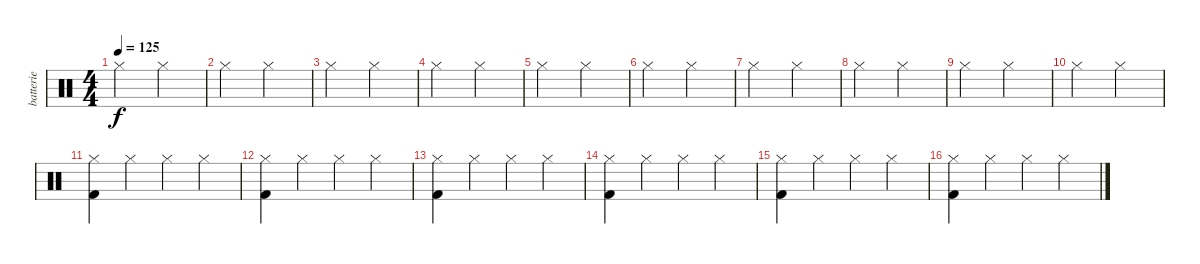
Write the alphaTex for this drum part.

\track ("batterie" "batterie") {instrument percussion}
\staff {score}
\articulation defaults
\ts (4 4)
\tempo 125
\clef neutral
\ks c "Hi-Hat (closed)".2{dy f} "Hi-Hat (closed)".2
|
"Hi-Hat (closed)".2 "Hi-Hat (closed)".2 |
"Hi-Hat (closed)".2 "Hi-Hat (closed)".2 |
"Hi-Hat (closed)".2 "Hi-Hat (closed)".2 |
"Hi-Hat (closed)".2 "Hi-Hat (closed)".2 |
"Hi-Hat (closed)".2 "Hi-Hat (closed)".2 |
"Hi-Hat (closed)".2 "Hi-Hat (closed)".2 |
"Hi-Hat (closed)".2 "Hi-Hat (closed)".2 |
"Hi-Hat (closed)".2 "Hi-Hat (closed)".2 |
"Hi-Hat (closed)".2 "Hi-Hat (closed)".2 |
("Kick (hit) 2" "Hi-Hat (closed)").4 "Hi-Hat (closed)".4 "Hi-Hat (closed)".4 "Hi-Hat (closed)".4 |
("Kick (hit) 2" "Hi-Hat (closed)").4 "Hi-Hat (closed)".4 "Hi-Hat (closed)".4 "Hi-Hat (closed)".4 |
("Kick (hit) 2" "Hi-Hat (closed)").4 "Hi-Hat (closed)".4 "Hi-Hat (closed)".4 "Hi-Hat (closed)".4 |
("Kick (hit) 2" "Hi-Hat (closed)").4 "Hi-Hat (closed)".4 "Hi-Hat (closed)".4 "Hi-Hat (closed)".4 |
("Kick (hit) 2" "Hi-Hat (closed)").4 "Hi-Hat (closed)".4 "Hi-Hat (closed)".4 "Hi-Hat (closed)".4 |
("Kick (hit) 2" "Hi-Hat (closed)").4 "Hi-Hat (closed)".4 "Hi-Hat (closed)".4 "Hi-Hat (closed)".4
